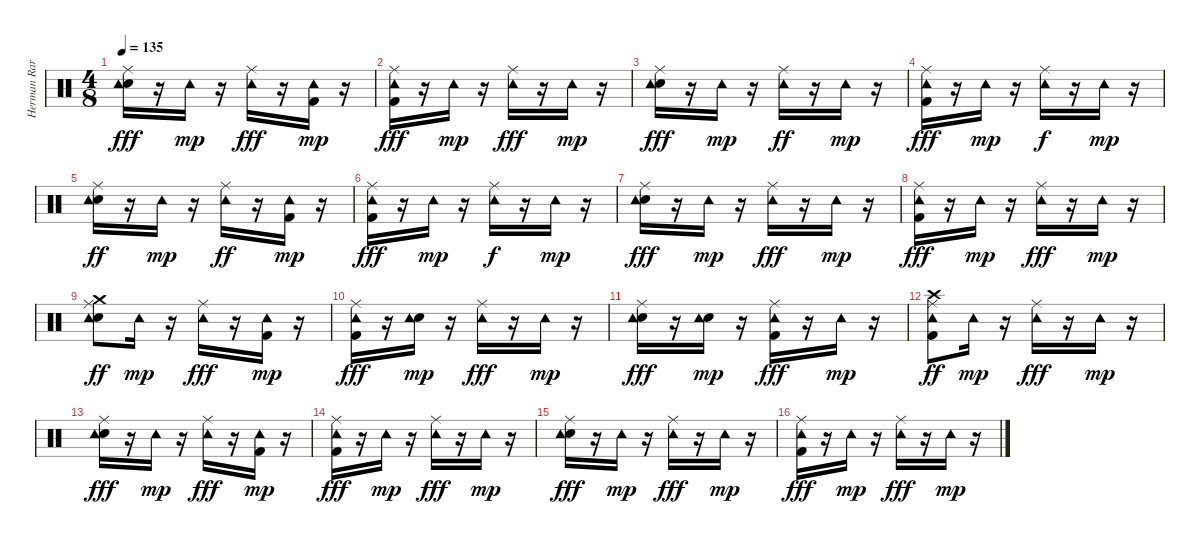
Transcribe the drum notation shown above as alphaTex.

\track ("Herman Rarebell" "Herman Rar") {instrument percussion}
\staff {score}
\articulation defaults
\ts (4 8)
\tempo 135
\clef neutral
\ks c
("Snare (hit) 2" "Ride (middle)" "Tambourine (hit)").16{dy fff} r.16 "Tambourine (hit)".16{dy mp} r.16 ("Ride (middle)" "Tambourine (hit)").16{dy fff} r.16 ("Kick (hit) 2" "Tambourine (hit)").16{dy mp} r.16 |
("Kick (hit) 2" "Ride (middle)" "Tambourine (hit)").16{dy fff} r.16 "Tambourine (hit)".16{dy mp} r.16 ("Ride (middle)" "Tambourine (hit)").16{dy fff} r.16 "Tambourine (hit)".16{dy mp} r.16 |
("Snare (hit) 2" "Ride (middle)" "Tambourine (hit)").16{dy fff} r.16 "Tambourine (hit)".16{dy mp} r.16 ("Ride (middle)" "Tambourine (hit)").16{dy ff} r.16 "Tambourine (hit)".16{dy mp} r.16 |
("Kick (hit) 2" "Ride (middle)" "Tambourine (hit)").16{dy fff} r.16 "Tambourine (hit)".16{dy mp} r.16 ("Ride (middle)" "Tambourine (hit)").16{dy f} r.16 "Tambourine (hit)".16{dy mp} r.16 |
("Snare (hit) 2" "Ride (middle)" "Tambourine (hit)").16{dy ff} r.16 "Tambourine (hit)".16{dy mp} r.16 ("Ride (middle)" "Tambourine (hit)").16{dy ff} r.16 ("Kick (hit) 2" "Tambourine (hit)").16{dy mp} r.16 |
("Kick (hit) 2" "Ride (middle)" "Tambourine (hit)").16{dy fff} r.16 "Tambourine (hit)".16{dy mp} r.16 ("Ride (middle)" "Tambourine (hit)").16{dy f} r.16 "Tambourine (hit)".16{dy mp} r.16 |
("Snare (hit) 2" "Ride (middle)" "Tambourine (hit)").16{dy fff} r.16 "Tambourine (hit)".16{dy mp} r.16 ("Ride (middle)" "Tambourine (hit)").16{dy fff} r.16 "Tambourine (hit)".16{dy mp} r.16 |
("Kick (hit) 2" "Ride (middle)" "Tambourine (hit)").16{dy fff} r.16 "Tambourine (hit)".16{dy mp} r.16 ("Ride (middle)" "Tambourine (hit)").16{dy fff} r.16 "Tambourine (hit)".16{dy mp} r.16 |
("Snare (hit) 2" "Ride (middle)" "Tambourine (hit)" "Crash medium (hit)").8{dy ff} "Tambourine (hit)".16{dy mp} r.16 ("Ride (middle)" "Tambourine (hit)").16{dy fff} r.16 ("Kick (hit) 2" "Tambourine (hit)").16{dy mp} r.16 |
("Kick (hit) 2" "Ride (middle)" "Tambourine (hit)").16{dy fff} r.16 ("Snare (hit) 2" "Tambourine (hit)").16{dy mp} r.16 ("Ride (middle)" "Tambourine (hit)").16{dy fff} r.16 "Tambourine (hit)".16{dy mp} r.16 |
("Snare (hit) 2" "Ride (middle)" "Tambourine (hit)").16{dy fff} r.16 ("Snare (hit) 2" "Tambourine (hit)").16{dy mp} r.16 ("Kick (hit) 2" "Ride (middle)" "Tambourine (hit)").16{dy fff} r.16 "Tambourine (hit)".16{dy mp} r.16 |
("Kick (hit) 2" "Ride (middle)" "Tambourine (hit)" "Crash high (hit)").8{dy ff} "Tambourine (hit)".16{dy mp} r.16 ("Ride (middle)" "Tambourine (hit)").16{dy fff} r.16 "Tambourine (hit)".16{dy mp} r.16 |
("Snare (hit) 2" "Ride (middle)" "Tambourine (hit)").16{dy fff} r.16 "Tambourine (hit)".16{dy mp} r.16 ("Ride (middle)" "Tambourine (hit)").16{dy fff} r.16 ("Kick (hit) 2" "Tambourine (hit)").16{dy mp} r.16 |
("Kick (hit) 2" "Ride (middle)" "Tambourine (hit)").16{dy fff} r.16 "Tambourine (hit)".16{dy mp} r.16 ("Ride (middle)" "Tambourine (hit)").16{dy fff} r.16 "Tambourine (hit)".16{dy mp} r.16 |
("Snare (hit) 2" "Ride (middle)" "Tambourine (hit)").16{dy fff} r.16 "Tambourine (hit)".16{dy mp} r.16 ("Ride (middle)" "Tambourine (hit)").16{dy fff} r.16 "Tambourine (hit)".16{dy mp} r.16 |
("Kick (hit) 2" "Ride (middle)" "Tambourine (hit)").16{dy fff} r.16 "Tambourine (hit)".16{dy mp} r.16 ("Ride (middle)" "Tambourine (hit)").16{dy fff} r.16 "Tambourine (hit)".16{dy mp} r.16
